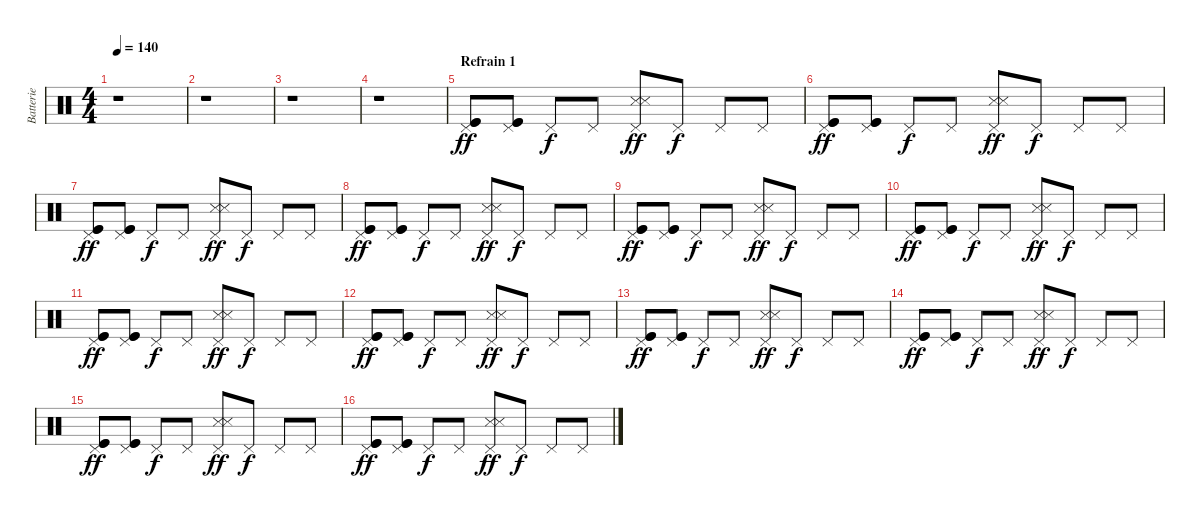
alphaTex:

\track ("Batterie " "Batterie ") {instrument percussion}
\staff {score}
\articulation defaults
\ts (4 4)
\tempo 140
\clef neutral
\ks c
r.1{dy ff} |
r.1 |
r.1 |
r.1 |
\section ("" "Refrain 1")
("Kick (hit)" "Kick (hit)" "Pedal Hi-Hat (hit)").8 ("Kick (hit)" "Kick (hit)" "Pedal Hi-Hat (hit)").8 "Pedal Hi-Hat (hit)".8{dy f} "Pedal Hi-Hat (hit)".8 ("Snare (side stick) 3" "Snare (side stick) 3" "Pedal Hi-Hat (hit)").8{dy ff} "Pedal Hi-Hat (hit)".8{dy f} "Pedal Hi-Hat (hit)".8 "Pedal Hi-Hat (hit)".8 |
("Kick (hit)" "Kick (hit)" "Pedal Hi-Hat (hit)").8{dy ff} ("Kick (hit)" "Kick (hit)" "Pedal Hi-Hat (hit)").8 "Pedal Hi-Hat (hit)".8{dy f} "Pedal Hi-Hat (hit)".8 ("Snare (side stick) 3" "Snare (side stick) 3" "Pedal Hi-Hat (hit)").8{dy ff} "Pedal Hi-Hat (hit)".8{dy f} "Pedal Hi-Hat (hit)".8 "Pedal Hi-Hat (hit)".8 |
("Kick (hit)" "Kick (hit)" "Pedal Hi-Hat (hit)").8{dy ff} ("Kick (hit)" "Kick (hit)" "Pedal Hi-Hat (hit)").8 "Pedal Hi-Hat (hit)".8{dy f} "Pedal Hi-Hat (hit)".8 ("Snare (side stick) 3" "Snare (side stick) 3" "Pedal Hi-Hat (hit)").8{dy ff} "Pedal Hi-Hat (hit)".8{dy f} "Pedal Hi-Hat (hit)".8 "Pedal Hi-Hat (hit)".8 |
("Kick (hit)" "Kick (hit)" "Pedal Hi-Hat (hit)").8{dy ff} ("Kick (hit)" "Kick (hit)" "Pedal Hi-Hat (hit)").8 "Pedal Hi-Hat (hit)".8{dy f} "Pedal Hi-Hat (hit)".8 ("Snare (side stick) 3" "Snare (side stick) 3" "Pedal Hi-Hat (hit)").8{dy ff} "Pedal Hi-Hat (hit)".8{dy f} "Pedal Hi-Hat (hit)".8 "Pedal Hi-Hat (hit)".8 |
("Kick (hit)" "Kick (hit)" "Pedal Hi-Hat (hit)").8{dy ff} ("Kick (hit)" "Kick (hit)" "Pedal Hi-Hat (hit)").8 "Pedal Hi-Hat (hit)".8{dy f} "Pedal Hi-Hat (hit)".8 ("Snare (side stick) 3" "Snare (side stick) 3" "Pedal Hi-Hat (hit)").8{dy ff} "Pedal Hi-Hat (hit)".8{dy f} "Pedal Hi-Hat (hit)".8 "Pedal Hi-Hat (hit)".8 |
("Kick (hit)" "Kick (hit)" "Pedal Hi-Hat (hit)").8{dy ff} ("Kick (hit)" "Kick (hit)" "Pedal Hi-Hat (hit)").8 "Pedal Hi-Hat (hit)".8{dy f} "Pedal Hi-Hat (hit)".8 ("Snare (side stick) 3" "Snare (side stick) 3" "Pedal Hi-Hat (hit)").8{dy ff} "Pedal Hi-Hat (hit)".8{dy f} "Pedal Hi-Hat (hit)".8 "Pedal Hi-Hat (hit)".8 |
("Kick (hit)" "Kick (hit)" "Pedal Hi-Hat (hit)").8{dy ff} ("Kick (hit)" "Kick (hit)" "Pedal Hi-Hat (hit)").8 "Pedal Hi-Hat (hit)".8{dy f} "Pedal Hi-Hat (hit)".8 ("Snare (side stick) 3" "Snare (side stick) 3" "Pedal Hi-Hat (hit)").8{dy ff} "Pedal Hi-Hat (hit)".8{dy f} "Pedal Hi-Hat (hit)".8 "Pedal Hi-Hat (hit)".8 |
("Kick (hit)" "Kick (hit)" "Pedal Hi-Hat (hit)").8{dy ff} ("Kick (hit)" "Kick (hit)" "Pedal Hi-Hat (hit)").8 "Pedal Hi-Hat (hit)".8{dy f} "Pedal Hi-Hat (hit)".8 ("Snare (side stick) 3" "Snare (side stick) 3" "Pedal Hi-Hat (hit)").8{dy ff} "Pedal Hi-Hat (hit)".8{dy f} "Pedal Hi-Hat (hit)".8 "Pedal Hi-Hat (hit)".8 |
("Kick (hit)" "Kick (hit)" "Pedal Hi-Hat (hit)").8{dy ff} ("Kick (hit)" "Kick (hit)" "Pedal Hi-Hat (hit)").8 "Pedal Hi-Hat (hit)".8{dy f} "Pedal Hi-Hat (hit)".8 ("Snare (side stick) 3" "Snare (side stick) 3" "Pedal Hi-Hat (hit)").8{dy ff} "Pedal Hi-Hat (hit)".8{dy f} "Pedal Hi-Hat (hit)".8 "Pedal Hi-Hat (hit)".8 |
("Kick (hit)" "Kick (hit)" "Pedal Hi-Hat (hit)").8{dy ff} ("Kick (hit)" "Kick (hit)" "Pedal Hi-Hat (hit)").8 "Pedal Hi-Hat (hit)".8{dy f} "Pedal Hi-Hat (hit)".8 ("Snare (side stick) 3" "Snare (side stick) 3" "Pedal Hi-Hat (hit)").8{dy ff} "Pedal Hi-Hat (hit)".8{dy f} "Pedal Hi-Hat (hit)".8 "Pedal Hi-Hat (hit)".8 |
("Kick (hit)" "Kick (hit)" "Pedal Hi-Hat (hit)").8{dy ff} ("Kick (hit)" "Kick (hit)" "Pedal Hi-Hat (hit)").8 "Pedal Hi-Hat (hit)".8{dy f} "Pedal Hi-Hat (hit)".8 ("Snare (side stick) 3" "Snare (side stick) 3" "Pedal Hi-Hat (hit)").8{dy ff} "Pedal Hi-Hat (hit)".8{dy f} "Pedal Hi-Hat (hit)".8 "Pedal Hi-Hat (hit)".8 |
("Kick (hit)" "Kick (hit)" "Pedal Hi-Hat (hit)").8{dy ff} ("Kick (hit)" "Kick (hit)" "Pedal Hi-Hat (hit)").8 "Pedal Hi-Hat (hit)".8{dy f} "Pedal Hi-Hat (hit)".8 ("Snare (side stick) 3" "Snare (side stick) 3" "Pedal Hi-Hat (hit)").8{dy ff} "Pedal Hi-Hat (hit)".8{dy f} "Pedal Hi-Hat (hit)".8 "Pedal Hi-Hat (hit)".8
